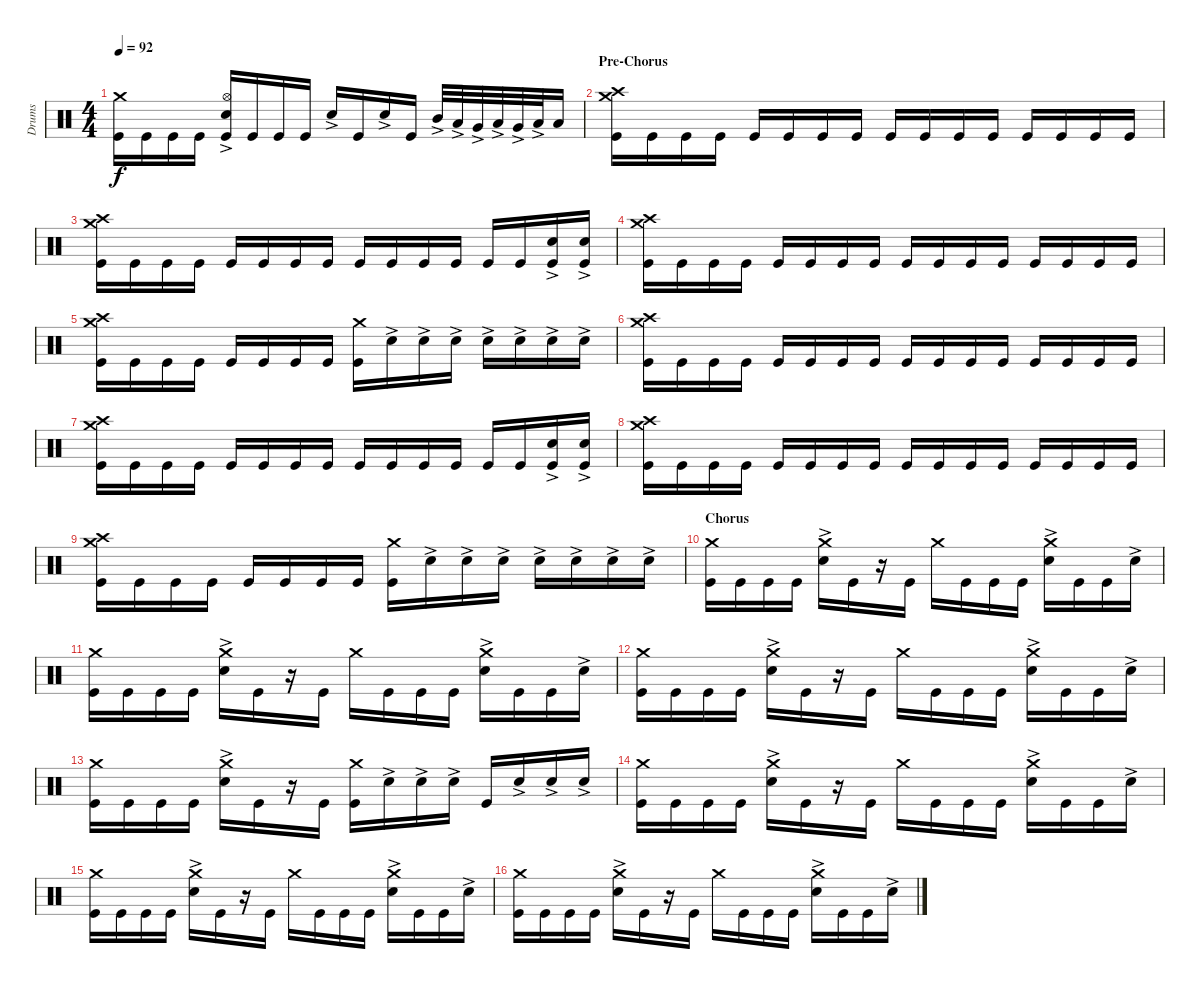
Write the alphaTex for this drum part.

\track ("Drums" "Drums") {instrument percussion}
\staff {score}
\articulation defaults
\ts (4 4)
\tempo 92
\clef neutral
\ks c
("Kick (hit)" "Crash medium (hit)").16{dy f} "Kick (hit)".16 "Kick (hit)".16 "Kick (hit)".16 ("Kick (hit)" "Hi-Hat (open)" "Snare (hit) 2"{ac}).16 "Kick (hit)".16 "Kick (hit)".16 "Kick (hit)".16 "Snare (hit) 2"{ac}.16 "Kick (hit)".16 "Snare (hit) 2"{ac}.16 "Kick (hit)".16 "Mid Tom (hit)"{ac}.32 "Low Tom (hit)"{ac}.32 "Very Low Tom (hit)"{ac}.32 "Low Tom (hit)"{ac}.32 "Very Low Tom (hit)"{ac}.32 "Low Floor Tom (hit)"{ac}.32 "Low Floor Tom (hit)".16 |
\section ("" "Pre-Chorus")
("Kick (hit)" "Crash medium (hit)" "Crash high (hit)").16 "Kick (hit)".16 "Kick (hit)".16 "Kick (hit)".16 "Kick (hit)".16 "Kick (hit)".16 "Kick (hit)".16 "Kick (hit)".16 "Kick (hit)".16 "Kick (hit)".16 "Kick (hit)".16 "Kick (hit)".16 "Kick (hit)".16 "Kick (hit)".16 "Kick (hit)".16 "Kick (hit)".16 |
("Kick (hit)" "Crash medium (hit)" "Crash high (hit)").16 "Kick (hit)".16 "Kick (hit)".16 "Kick (hit)".16 "Kick (hit)".16 "Kick (hit)".16 "Kick (hit)".16 "Kick (hit)".16 "Kick (hit)".16 "Kick (hit)".16 "Kick (hit)".16 "Kick (hit)".16 "Kick (hit)".16 "Kick (hit)".16 ("Kick (hit)" "Snare (hit) 2"{ac}).16 ("Kick (hit)" "Snare (hit) 2"{ac}).16 |
("Kick (hit)" "Crash medium (hit)" "Crash high (hit)").16 "Kick (hit)".16 "Kick (hit)".16 "Kick (hit)".16 "Kick (hit)".16 "Kick (hit)".16 "Kick (hit)".16 "Kick (hit)".16 "Kick (hit)".16 "Kick (hit)".16 "Kick (hit)".16 "Kick (hit)".16 "Kick (hit)".16 "Kick (hit)".16 "Kick (hit)".16 "Kick (hit)".16 |
("Kick (hit)" "Crash medium (hit)" "Crash high (hit)").16 "Kick (hit)".16 "Kick (hit)".16 "Kick (hit)".16 "Kick (hit)".16 "Kick (hit)".16 "Kick (hit)".16 "Kick (hit)".16 ("Kick (hit)" "Crash medium (hit)").16 "Snare (hit) 2"{ac}.16 "Snare (hit) 2"{ac}.16 "Snare (hit) 2"{ac}.16 "Snare (hit) 2"{ac}.16 "Snare (hit) 2"{ac}.16 "Snare (hit) 2"{ac}.16 "Snare (hit) 2"{ac}.16 |
("Kick (hit)" "Crash medium (hit)" "Crash high (hit)").16 "Kick (hit)".16 "Kick (hit)".16 "Kick (hit)".16 "Kick (hit)".16 "Kick (hit)".16 "Kick (hit)".16 "Kick (hit)".16 "Kick (hit)".16 "Kick (hit)".16 "Kick (hit)".16 "Kick (hit)".16 "Kick (hit)".16 "Kick (hit)".16 "Kick (hit)".16 "Kick (hit)".16 |
("Kick (hit)" "Crash medium (hit)" "Crash high (hit)").16 "Kick (hit)".16 "Kick (hit)".16 "Kick (hit)".16 "Kick (hit)".16 "Kick (hit)".16 "Kick (hit)".16 "Kick (hit)".16 "Kick (hit)".16 "Kick (hit)".16 "Kick (hit)".16 "Kick (hit)".16 "Kick (hit)".16 "Kick (hit)".16 ("Kick (hit)" "Snare (hit) 2"{ac}).16 ("Kick (hit)" "Snare (hit) 2"{ac}).16 |
("Kick (hit)" "Crash medium (hit)" "Crash high (hit)").16 "Kick (hit)".16 "Kick (hit)".16 "Kick (hit)".16 "Kick (hit)".16 "Kick (hit)".16 "Kick (hit)".16 "Kick (hit)".16 "Kick (hit)".16 "Kick (hit)".16 "Kick (hit)".16 "Kick (hit)".16 "Kick (hit)".16 "Kick (hit)".16 "Kick (hit)".16 "Kick (hit)".16 |
("Kick (hit)" "Crash medium (hit)" "Crash high (hit)").16 "Kick (hit)".16 "Kick (hit)".16 "Kick (hit)".16 "Kick (hit)".16 "Kick (hit)".16 "Kick (hit)".16 "Kick (hit)".16 ("Kick (hit)" "Crash medium (hit)").16 "Snare (hit) 2"{ac}.16 "Snare (hit) 2"{ac}.16 "Snare (hit) 2"{ac}.16 "Snare (hit) 2"{ac}.16 "Snare (hit) 2"{ac}.16 "Snare (hit) 2"{ac}.16 "Snare (hit) 2"{ac}.16 |
\section ("" "Chorus")
("Crash medium (hit)" "Kick (hit)").16 "Kick (hit)".16 "Kick (hit)".16 "Kick (hit)".16 ("Crash medium (hit)" "Snare (hit) 2"{ac}).16 "Kick (hit)".16 r.16 "Kick (hit)".16 "Crash medium (hit)".16 "Kick (hit)".16 "Kick (hit)".16 "Kick (hit)".16 ("Crash medium (hit)" "Snare (hit) 2"{ac}).16 "Kick (hit)".16 "Kick (hit)".16 "Snare (hit) 2"{ac}.16 |
("Crash medium (hit)" "Kick (hit)").16 "Kick (hit)".16 "Kick (hit)".16 "Kick (hit)".16 ("Crash medium (hit)" "Snare (hit) 2"{ac}).16 "Kick (hit)".16 r.16 "Kick (hit)".16 "Crash medium (hit)".16 "Kick (hit)".16 "Kick (hit)".16 "Kick (hit)".16 ("Crash medium (hit)" "Snare (hit) 2"{ac}).16 "Kick (hit)".16 "Kick (hit)".16 "Snare (hit) 2"{ac}.16 |
("Crash medium (hit)" "Kick (hit)").16 "Kick (hit)".16 "Kick (hit)".16 "Kick (hit)".16 ("Crash medium (hit)" "Snare (hit) 2"{ac}).16 "Kick (hit)".16 r.16 "Kick (hit)".16 "Crash medium (hit)".16 "Kick (hit)".16 "Kick (hit)".16 "Kick (hit)".16 ("Crash medium (hit)" "Snare (hit) 2"{ac}).16 "Kick (hit)".16 "Kick (hit)".16 "Snare (hit) 2"{ac}.16 |
("Crash medium (hit)" "Kick (hit)").16 "Kick (hit)".16 "Kick (hit)".16 "Kick (hit)".16 ("Crash medium (hit)" "Snare (hit) 2"{ac}).16 "Kick (hit)".16 r.16 "Kick (hit)".16 ("Kick (hit)" "Crash medium (hit)").16 "Snare (hit) 2"{ac}.16 "Snare (hit) 2"{ac}.16 "Snare (hit) 2"{ac}.16 "Kick (hit)".16 "Snare (hit) 2"{ac}.16 "Snare (hit) 2"{ac}.16 "Snare (hit) 2"{ac}.16 |
("Crash medium (hit)" "Kick (hit)").16 "Kick (hit)".16 "Kick (hit)".16 "Kick (hit)".16 ("Crash medium (hit)" "Snare (hit) 2"{ac}).16 "Kick (hit)".16 r.16 "Kick (hit)".16 "Crash medium (hit)".16 "Kick (hit)".16 "Kick (hit)".16 "Kick (hit)".16 ("Crash medium (hit)" "Snare (hit) 2"{ac}).16 "Kick (hit)".16 "Kick (hit)".16 "Snare (hit) 2"{ac}.16 |
("Crash medium (hit)" "Kick (hit)").16 "Kick (hit)".16 "Kick (hit)".16 "Kick (hit)".16 ("Crash medium (hit)" "Snare (hit) 2"{ac}).16 "Kick (hit)".16 r.16 "Kick (hit)".16 "Crash medium (hit)".16 "Kick (hit)".16 "Kick (hit)".16 "Kick (hit)".16 ("Crash medium (hit)" "Snare (hit) 2"{ac}).16 "Kick (hit)".16 "Kick (hit)".16 "Snare (hit) 2"{ac}.16 |
("Crash medium (hit)" "Kick (hit)").16 "Kick (hit)".16 "Kick (hit)".16 "Kick (hit)".16 ("Crash medium (hit)" "Snare (hit) 2"{ac}).16 "Kick (hit)".16 r.16 "Kick (hit)".16 "Crash medium (hit)".16 "Kick (hit)".16 "Kick (hit)".16 "Kick (hit)".16 ("Crash medium (hit)" "Snare (hit) 2"{ac}).16 "Kick (hit)".16 "Kick (hit)".16 "Snare (hit) 2"{ac}.16
